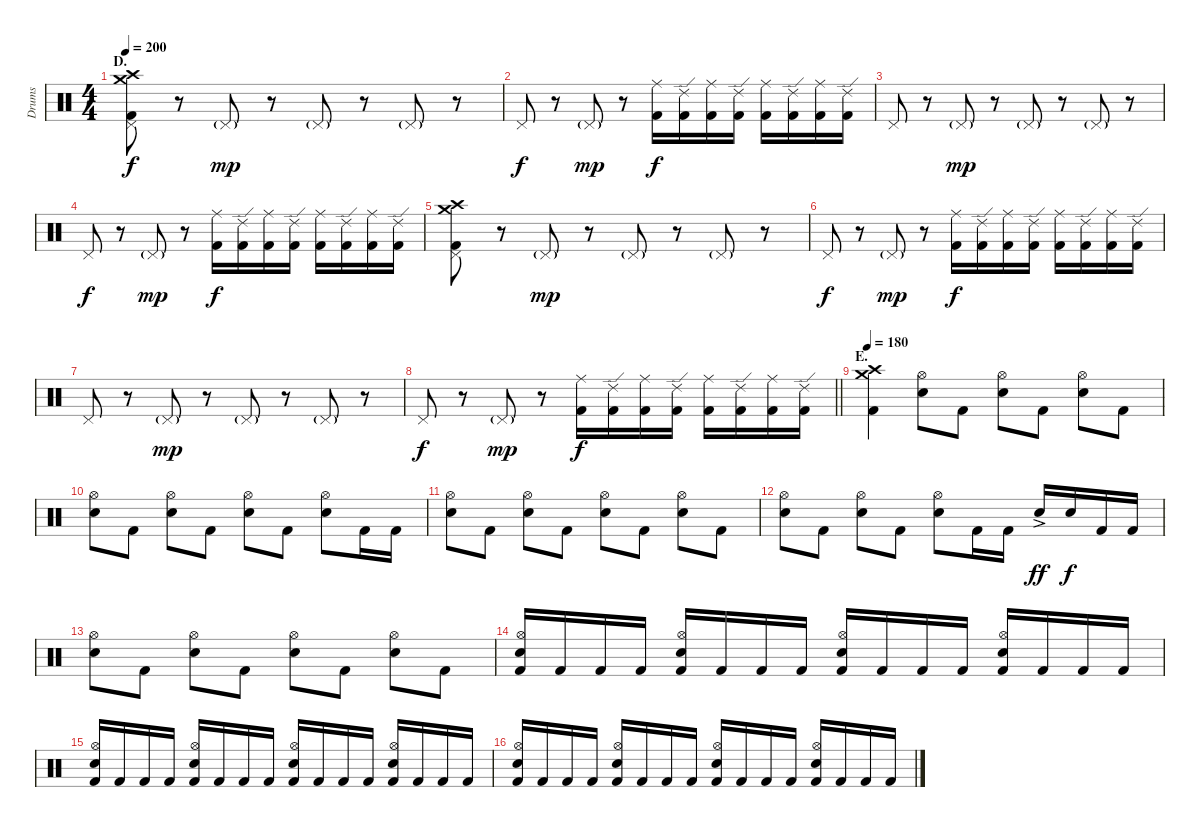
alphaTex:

\track ("Drums" "Drums") {instrument percussion}
\staff {score}
\articulation defaults
\ts (4 4)
\section ("" "D.")
\tempo 200
\clef neutral
\ks c
("Crash medium (hit)" "Crash high (hit)" "Pedal Hi-Hat (hit)" "Kick (hit) 2").8{dy f} r.8 "Pedal Hi-Hat (hit)"{g}.8{dy mp} r.8 "Pedal Hi-Hat (hit)"{g}.8 r.8 "Pedal Hi-Hat (hit)"{g}.8 r.8 |
"Pedal Hi-Hat (hit)".8{dy f} r.8 "Pedal Hi-Hat (hit)"{g}.8{dy mp} r.8 ("Ride (middle)" "Kick (hit) 2").16{dy f} ("Ride (edge) 2" "Kick (hit) 2").16 ("Ride (middle)" "Kick (hit) 2").16 ("Ride (edge) 2" "Kick (hit) 2").16 ("Ride (middle)" "Kick (hit) 2").16 ("Ride (edge) 2" "Kick (hit) 2").16 ("Ride (middle)" "Kick (hit) 2").16 ("Ride (edge) 2" "Kick (hit) 2").16 |
"Pedal Hi-Hat (hit)".8 r.8 "Pedal Hi-Hat (hit)"{g}.8{dy mp} r.8 "Pedal Hi-Hat (hit)"{g}.8 r.8 "Pedal Hi-Hat (hit)"{g}.8 r.8 |
"Pedal Hi-Hat (hit)".8{dy f} r.8 "Pedal Hi-Hat (hit)"{g}.8{dy mp} r.8 ("Ride (middle)" "Kick (hit) 2").16{dy f} ("Ride (edge) 2" "Kick (hit) 2").16 ("Ride (middle)" "Kick (hit) 2").16 ("Ride (edge) 2" "Kick (hit) 2").16 ("Ride (middle)" "Kick (hit) 2").16 ("Ride (edge) 2" "Kick (hit) 2").16 ("Ride (middle)" "Kick (hit) 2").16 ("Ride (edge) 2" "Kick (hit) 2").16 |
("Crash medium (hit)" "Crash high (hit)" "Pedal Hi-Hat (hit)" "Kick (hit) 2").8 r.8 "Pedal Hi-Hat (hit)"{g}.8{dy mp} r.8 "Pedal Hi-Hat (hit)"{g}.8 r.8 "Pedal Hi-Hat (hit)"{g}.8 r.8 |
"Pedal Hi-Hat (hit)".8{dy f} r.8 "Pedal Hi-Hat (hit)"{g}.8{dy mp} r.8 ("Ride (middle)" "Kick (hit) 2").16{dy f} ("Ride (edge) 2" "Kick (hit) 2").16 ("Ride (middle)" "Kick (hit) 2").16 ("Ride (edge) 2" "Kick (hit) 2").16 ("Ride (middle)" "Kick (hit) 2").16 ("Ride (edge) 2" "Kick (hit) 2").16 ("Ride (middle)" "Kick (hit) 2").16 ("Ride (edge) 2" "Kick (hit) 2").16 |
"Pedal Hi-Hat (hit)".8 r.8 "Pedal Hi-Hat (hit)"{g}.8{dy mp} r.8 "Pedal Hi-Hat (hit)"{g}.8 r.8 "Pedal Hi-Hat (hit)"{g}.8 r.8 |
\barLineRight lightlight "Pedal Hi-Hat (hit)".8{dy f}
r.8 "Pedal Hi-Hat (hit)"{g}.8{dy mp} r.8 ("Ride (middle)" "Kick (hit) 2").16{dy f} ("Ride (edge) 2" "Kick (hit) 2").16 ("Ride (middle)" "Kick (hit) 2").16 ("Ride (edge) 2" "Kick (hit) 2").16 ("Ride (middle)" "Kick (hit) 2").16 ("Ride (edge) 2" "Kick (hit) 2").16 ("Ride (middle)" "Kick (hit) 2").16 ("Ride (edge) 2" "Kick (hit) 2").16 |
\section ("" "E.")
\tempo 180
("Crash medium (hit)" "Crash high (hit)" "Kick (hit) 2").4 ("Hi-Hat (open)" "Electric Snare (hit)").8 "Kick (hit) 2".8 ("Hi-Hat (open)" "Electric Snare (hit)").8 "Kick (hit) 2".8 ("Hi-Hat (open)" "Electric Snare (hit)").8 "Kick (hit) 2".8 |
("Hi-Hat (open)" "Electric Snare (hit)").8 "Kick (hit) 2".8 ("Hi-Hat (open)" "Electric Snare (hit)").8 "Kick (hit) 2".8 ("Hi-Hat (open)" "Electric Snare (hit)").8 "Kick (hit) 2".8 ("Hi-Hat (open)" "Electric Snare (hit)").8 "Kick (hit) 2".16 "Kick (hit) 2".16 |
("Hi-Hat (open)" "Electric Snare (hit)").8 "Kick (hit) 2".8 ("Hi-Hat (open)" "Electric Snare (hit)").8 "Kick (hit) 2".8 ("Hi-Hat (open)" "Electric Snare (hit)").8 "Kick (hit) 2".8 ("Hi-Hat (open)" "Electric Snare (hit)").8 "Kick (hit) 2".8 |
("Hi-Hat (open)" "Electric Snare (hit)").8 "Kick (hit) 2".8 ("Hi-Hat (open)" "Electric Snare (hit)").8 "Kick (hit) 2".8 ("Hi-Hat (open)" "Electric Snare (hit)").8 "Kick (hit) 2".16 "Kick (hit) 2".16 "Electric Snare (hit)"{ac}.16{dy ff} "Electric Snare (hit)".16{dy f} "Kick (hit) 2".16 "Kick (hit) 2".16 |
("Hi-Hat (open)" "Electric Snare (hit)").8 "Kick (hit) 2".8 ("Hi-Hat (open)" "Electric Snare (hit)").8 "Kick (hit) 2".8 ("Hi-Hat (open)" "Electric Snare (hit)").8 "Kick (hit) 2".8 ("Hi-Hat (open)" "Electric Snare (hit)").8 "Kick (hit) 2".8 |
("Hi-Hat (open)" "Electric Snare (hit)" "Kick (hit) 2").16 "Kick (hit) 2".16 "Kick (hit) 2".16 "Kick (hit) 2".16 ("Hi-Hat (open)" "Electric Snare (hit)" "Kick (hit) 2").16 "Kick (hit) 2".16 "Kick (hit) 2".16 "Kick (hit) 2".16 ("Hi-Hat (open)" "Electric Snare (hit)" "Kick (hit) 2").16 "Kick (hit) 2".16 "Kick (hit) 2".16 "Kick (hit) 2".16 ("Hi-Hat (open)" "Electric Snare (hit)" "Kick (hit) 2").16 "Kick (hit) 2".16 "Kick (hit) 2".16 "Kick (hit) 2".16 |
("Hi-Hat (open)" "Electric Snare (hit)" "Kick (hit) 2").16 "Kick (hit) 2".16 "Kick (hit) 2".16 "Kick (hit) 2".16 ("Hi-Hat (open)" "Electric Snare (hit)" "Kick (hit) 2").16 "Kick (hit) 2".16 "Kick (hit) 2".16 "Kick (hit) 2".16 ("Hi-Hat (open)" "Electric Snare (hit)" "Kick (hit) 2").16 "Kick (hit) 2".16 "Kick (hit) 2".16 "Kick (hit) 2".16 ("Hi-Hat (open)" "Electric Snare (hit)" "Kick (hit) 2").16 "Kick (hit) 2".16 "Kick (hit) 2".16 "Kick (hit) 2".16 |
("Hi-Hat (open)" "Electric Snare (hit)" "Kick (hit) 2").16 "Kick (hit) 2".16 "Kick (hit) 2".16 "Kick (hit) 2".16 ("Hi-Hat (open)" "Electric Snare (hit)" "Kick (hit) 2").16 "Kick (hit) 2".16 "Kick (hit) 2".16 "Kick (hit) 2".16 ("Hi-Hat (open)" "Electric Snare (hit)" "Kick (hit) 2").16 "Kick (hit) 2".16 "Kick (hit) 2".16 "Kick (hit) 2".16 ("Hi-Hat (open)" "Electric Snare (hit)" "Kick (hit) 2").16 "Kick (hit) 2".16 "Kick (hit) 2".16 "Kick (hit) 2".16
